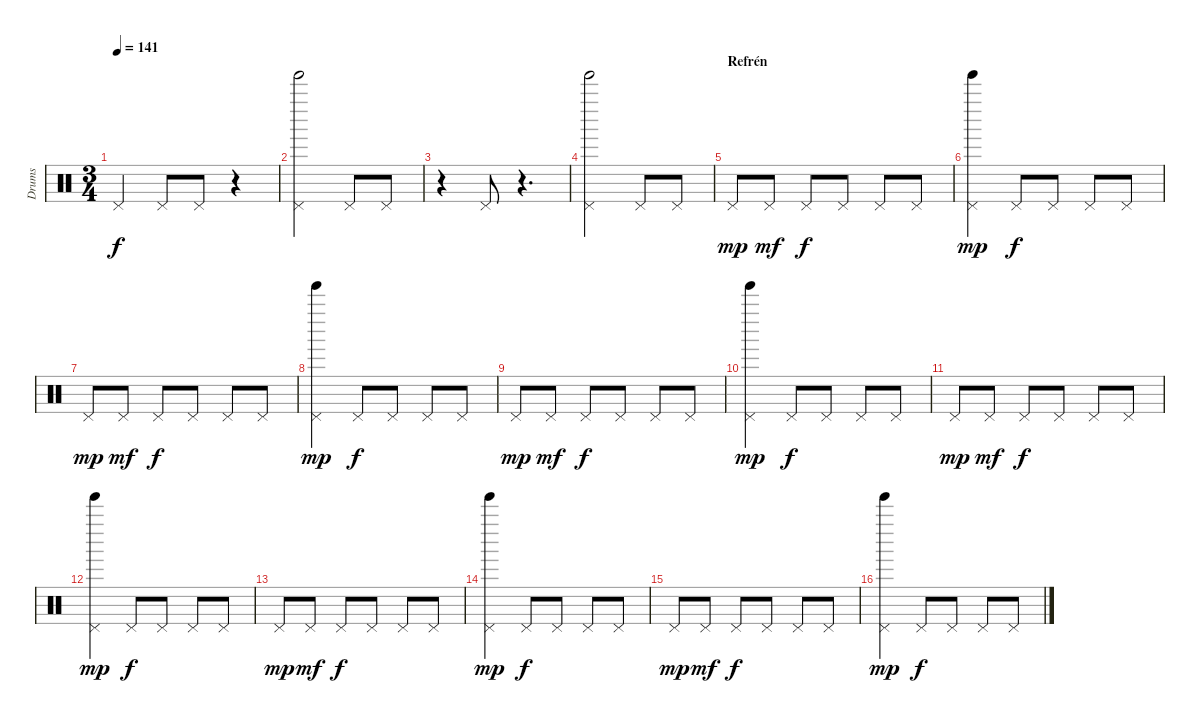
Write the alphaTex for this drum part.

\track ("Drums" "Drums") {instrument percussion}
\staff {score}
\articulation defaults
\ts (3 4)
\tempo 141
\clef neutral
\ks c "Pedal Hi-Hat (hit)".4{dy f} "Pedal Hi-Hat (hit)".8 "Pedal Hi-Hat (hit)".8
r.4 |
("Pedal Hi-Hat (hit)" "Tinkle Bell (hit)").2 "Pedal Hi-Hat (hit)".8 "Pedal Hi-Hat (hit)".8 |
r.4 "Pedal Hi-Hat (hit)".8 r.4{d} |
("Pedal Hi-Hat (hit)" "Tinkle Bell (hit)").2 "Pedal Hi-Hat (hit)".8 "Pedal Hi-Hat (hit)".8 |
\section ("" "Refrén")
"Pedal Hi-Hat (hit)".8{dy mp} "Pedal Hi-Hat (hit)".8{dy mf} "Pedal Hi-Hat (hit)".8{dy f} "Pedal Hi-Hat (hit)".8 "Pedal Hi-Hat (hit)".8 "Pedal Hi-Hat (hit)".8 |
("Pedal Hi-Hat (hit)" "Tinkle Bell (hit)").4{dy mp} "Pedal Hi-Hat (hit)".8{dy f} "Pedal Hi-Hat (hit)".8 "Pedal Hi-Hat (hit)".8 "Pedal Hi-Hat (hit)".8 |
"Pedal Hi-Hat (hit)".8{dy mp} "Pedal Hi-Hat (hit)".8{dy mf} "Pedal Hi-Hat (hit)".8{dy f} "Pedal Hi-Hat (hit)".8 "Pedal Hi-Hat (hit)".8 "Pedal Hi-Hat (hit)".8 |
("Pedal Hi-Hat (hit)" "Tinkle Bell (hit)").4{dy mp} "Pedal Hi-Hat (hit)".8{dy f} "Pedal Hi-Hat (hit)".8 "Pedal Hi-Hat (hit)".8 "Pedal Hi-Hat (hit)".8 |
"Pedal Hi-Hat (hit)".8{dy mp} "Pedal Hi-Hat (hit)".8{dy mf} "Pedal Hi-Hat (hit)".8{dy f} "Pedal Hi-Hat (hit)".8 "Pedal Hi-Hat (hit)".8 "Pedal Hi-Hat (hit)".8 |
("Pedal Hi-Hat (hit)" "Tinkle Bell (hit)").4{dy mp} "Pedal Hi-Hat (hit)".8{dy f} "Pedal Hi-Hat (hit)".8 "Pedal Hi-Hat (hit)".8 "Pedal Hi-Hat (hit)".8 |
"Pedal Hi-Hat (hit)".8{dy mp} "Pedal Hi-Hat (hit)".8{dy mf} "Pedal Hi-Hat (hit)".8{dy f} "Pedal Hi-Hat (hit)".8 "Pedal Hi-Hat (hit)".8 "Pedal Hi-Hat (hit)".8 |
("Pedal Hi-Hat (hit)" "Tinkle Bell (hit)").4{dy mp} "Pedal Hi-Hat (hit)".8{dy f} "Pedal Hi-Hat (hit)".8 "Pedal Hi-Hat (hit)".8 "Pedal Hi-Hat (hit)".8 |
"Pedal Hi-Hat (hit)".8{dy mp} "Pedal Hi-Hat (hit)".8{dy mf} "Pedal Hi-Hat (hit)".8{dy f} "Pedal Hi-Hat (hit)".8 "Pedal Hi-Hat (hit)".8 "Pedal Hi-Hat (hit)".8 |
("Pedal Hi-Hat (hit)" "Tinkle Bell (hit)").4{dy mp} "Pedal Hi-Hat (hit)".8{dy f} "Pedal Hi-Hat (hit)".8 "Pedal Hi-Hat (hit)".8 "Pedal Hi-Hat (hit)".8 |
"Pedal Hi-Hat (hit)".8{dy mp} "Pedal Hi-Hat (hit)".8{dy mf} "Pedal Hi-Hat (hit)".8{dy f} "Pedal Hi-Hat (hit)".8 "Pedal Hi-Hat (hit)".8 "Pedal Hi-Hat (hit)".8 |
("Pedal Hi-Hat (hit)" "Tinkle Bell (hit)").4{dy mp} "Pedal Hi-Hat (hit)".8{dy f} "Pedal Hi-Hat (hit)".8 "Pedal Hi-Hat (hit)".8 "Pedal Hi-Hat (hit)".8
